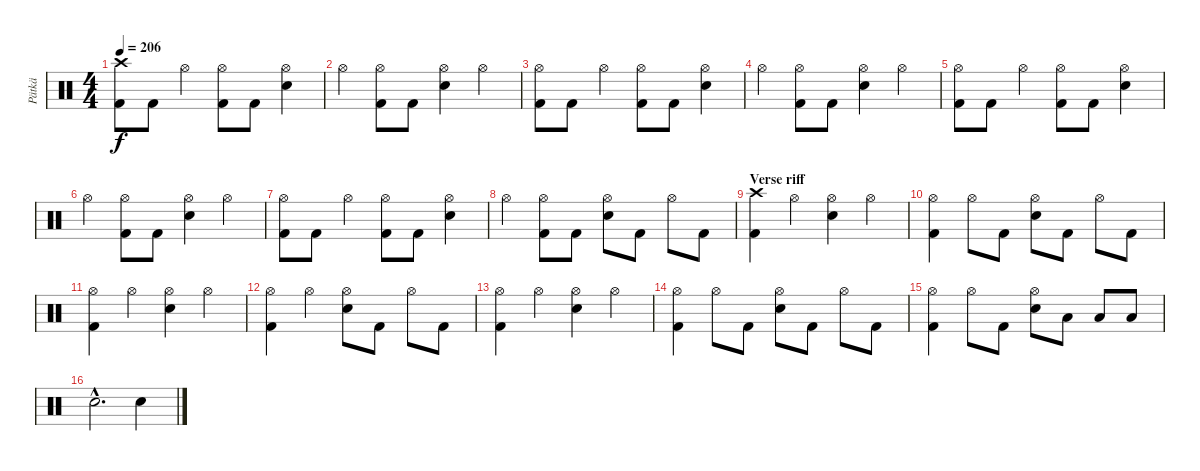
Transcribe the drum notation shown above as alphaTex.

\track ("Pätkä" "Pätkä") {instrument percussion}
\staff {score}
\articulation defaults
\ts (4 4)
\tempo 206
\clef neutral
\ks c
("Crash high (hit)" "Kick (hit) 2").8{dy f} "Kick (hit) 2".8 "Hi-Hat (open)".4 ("Hi-Hat (open)" "Kick (hit) 2").8 "Kick (hit) 2".8 ("Hi-Hat (open)" "Electric Snare (hit)").4 |
"Hi-Hat (open)".4 ("Hi-Hat (open)" "Kick (hit) 2").8 "Kick (hit) 2".8 ("Hi-Hat (open)" "Electric Snare (hit)").4 "Hi-Hat (open)".4 |
("Hi-Hat (open)" "Kick (hit) 2").8 "Kick (hit) 2".8 "Hi-Hat (open)".4 ("Hi-Hat (open)" "Kick (hit) 2").8 "Kick (hit) 2".8 ("Hi-Hat (open)" "Electric Snare (hit)").4 |
"Hi-Hat (open)".4 ("Hi-Hat (open)" "Kick (hit) 2").8 "Kick (hit) 2".8 ("Hi-Hat (open)" "Electric Snare (hit)").4 "Hi-Hat (open)".4 |
("Hi-Hat (open)" "Kick (hit) 2").8 "Kick (hit) 2".8 "Hi-Hat (open)".4 ("Hi-Hat (open)" "Kick (hit) 2").8 "Kick (hit) 2".8 ("Hi-Hat (open)" "Electric Snare (hit)").4 |
"Hi-Hat (open)".4 ("Hi-Hat (open)" "Kick (hit) 2").8 "Kick (hit) 2".8 ("Hi-Hat (open)" "Electric Snare (hit)").4 "Hi-Hat (open)".4 |
("Hi-Hat (open)" "Kick (hit) 2").8 "Kick (hit) 2".8 "Hi-Hat (open)".4 ("Hi-Hat (open)" "Kick (hit) 2").8 "Kick (hit) 2".8 ("Hi-Hat (open)" "Electric Snare (hit)").4 |
"Hi-Hat (open)".4 ("Hi-Hat (open)" "Kick (hit) 2").8 "Kick (hit) 2".8 ("Hi-Hat (open)" "Electric Snare (hit)").8 "Kick (hit) 2".8 "Hi-Hat (open)".8 "Kick (hit) 2".8 |
\section ("" "Verse riff")
("Crash high (hit)" "Kick (hit) 2").4 "Hi-Hat (open)".4 ("Hi-Hat (open)" "Electric Snare (hit)").4 "Hi-Hat (open)".4 |
("Hi-Hat (open)" "Kick (hit) 2").4 "Hi-Hat (open)".8 "Kick (hit) 2".8 ("Hi-Hat (open)" "Electric Snare (hit)").8 "Kick (hit) 2".8 "Hi-Hat (open)".8 "Kick (hit) 2".8 |
("Hi-Hat (open)" "Kick (hit) 2").4 "Hi-Hat (open)".4 ("Hi-Hat (open)" "Electric Snare (hit)").4 "Hi-Hat (open)".4 |
("Hi-Hat (open)" "Kick (hit) 2").4 "Hi-Hat (open)".4 ("Hi-Hat (open)" "Electric Snare (hit)").8 "Kick (hit) 2".8 "Hi-Hat (open)".8 "Kick (hit) 2".8 |
("Hi-Hat (open)" "Kick (hit) 2").4 "Hi-Hat (open)".4 ("Hi-Hat (open)" "Electric Snare (hit)").4 "Hi-Hat (open)".4 |
("Hi-Hat (open)" "Kick (hit) 2").4 "Hi-Hat (open)".8 "Kick (hit) 2".8 ("Hi-Hat (open)" "Electric Snare (hit)").8 "Kick (hit) 2".8 "Hi-Hat (open)".8 "Kick (hit) 2".8 |
("Hi-Hat (open)" "Kick (hit) 2").4 "Hi-Hat (open)".8 "Kick (hit) 2".8 ("Hi-Hat (open)" "Electric Snare (hit)").8 "Low Tom (hit)".8 "Low Floor Tom (hit)".8 "Low Floor Tom (hit)".8 |
"Electric Snare (hit)"{hac}.2{d} "Electric Snare (hit)".4
